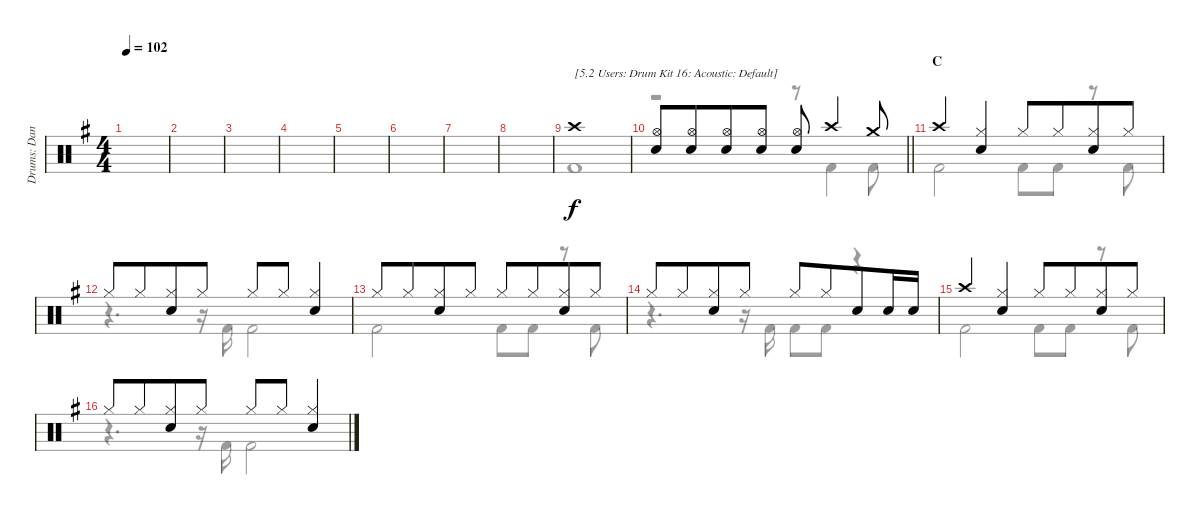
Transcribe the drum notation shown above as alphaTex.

\track ("Drums: Dana" "Drums: Dan") {instrument percussion}
\staff {score}
\articulation defaults
\voice
\ts (4 4)
\tempo 102
\clef neutral
\ks g
|
|
|
|
|
|
|
|
"Crash high (hit)".1{txt "[5.2 Users: Drum Kit 16: Acoustic: Default]"} |
\barLineRight lightlight
("Hi-Hat (open)" "Snare (hit) 2").8 ("Hi-Hat (open)" "Snare (hit) 2").8{beam merge} ("Hi-Hat (open)" "Snare (hit) 2").8 ("Hi-Hat (open)" "Snare (hit) 2").8 ("Hi-Hat (open)" "Snare (hit) 2").8 "Crash high (hit)".4 "Crash medium (hit)".8 |
\section ("" "C")
"Crash high (hit)".4 ("Hi-Hat (closed)" "Snare (hit) 2").4 "Hi-Hat (closed)".8 "Hi-Hat (closed)".8{beam merge} ("Hi-Hat (closed)" "Snare (hit) 2").8 "Hi-Hat (closed)".8 |
"Hi-Hat (closed)".8 "Hi-Hat (closed)".8{beam merge} ("Hi-Hat (closed)" "Snare (hit) 2").8 "Hi-Hat (closed)".8 "Hi-Hat (closed)".8 "Hi-Hat (closed)".8{beam merge} ("Hi-Hat (closed)" "Snare (hit) 2").4 |
"Hi-Hat (closed)".8 "Hi-Hat (closed)".8{beam merge} ("Hi-Hat (closed)" "Snare (hit) 2").8 "Hi-Hat (closed)".8 "Hi-Hat (closed)".8 "Hi-Hat (closed)".8{beam merge} ("Hi-Hat (closed)" "Snare (hit) 2").8 "Hi-Hat (closed)".8 |
"Hi-Hat (closed)".8 "Hi-Hat (closed)".8{beam merge} ("Hi-Hat (closed)" "Snare (hit) 2").8 "Hi-Hat (closed)".8 "Hi-Hat (closed)".8 "Hi-Hat (closed)".8{beam merge} "Snare (hit) 2".8 "Snare (hit) 2".16 "Snare (hit) 2".16 |
"Crash high (hit)".4 ("Hi-Hat (closed)" "Snare (hit) 2").4 "Hi-Hat (closed)".8 "Hi-Hat (closed)".8{beam merge} ("Hi-Hat (closed)" "Snare (hit) 2").8 "Hi-Hat (closed)".8 |
"Hi-Hat (closed)".8 "Hi-Hat (closed)".8{beam merge} ("Hi-Hat (closed)" "Snare (hit) 2").8 "Hi-Hat (closed)".8 "Hi-Hat (closed)".8 "Hi-Hat (closed)".8{beam merge} ("Hi-Hat (closed)" "Snare (hit) 2").4
\voice
\clef neutral
\ottava regular
\simile none
\ks g
|
|
|
|
|
|
|
|
"Kick (hit) 2".1 |
\barLineRight lightlight
r.2 r.8 "Kick (hit) 2".4 "Kick (hit) 2".8 |
"Kick (hit) 2".2 "Kick (hit) 2".8 "Kick (hit) 2".8 r.8 "Kick (hit) 2".8 |
r.4{d} r.16 "Kick (hit) 2".16 "Kick (hit) 2".2 |
"Kick (hit) 2".2 "Kick (hit) 2".8 "Kick (hit) 2".8 r.8 "Kick (hit) 2".8 |
r.4{d} r.16 "Kick (hit) 2".16 "Kick (hit) 2".8 "Kick (hit) 2".8 r.4 |
"Kick (hit) 2".2 "Kick (hit) 2".8 "Kick (hit) 2".8 r.8 "Kick (hit) 2".8 |
r.4{d} r.16 "Kick (hit) 2".16 "Kick (hit) 2".2
